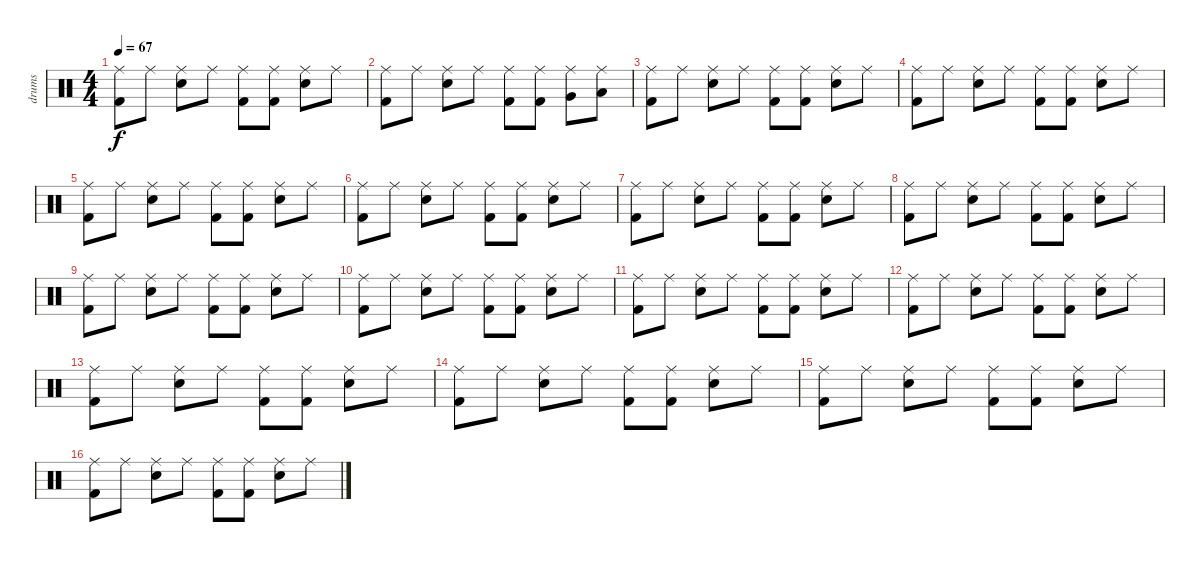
\track ("drums" "drums") {instrument percussion}
\staff {score}
\articulation defaults
\ts (4 4)
\tempo 67
\clef neutral
\ks c
("Ride (middle)" "Kick (hit) 2").8{dy f} "Ride (middle)".8 ("Ride (middle)" "Electric Snare (hit)").8 "Ride (middle)".8 ("Ride (middle)" "Kick (hit) 2").8 ("Ride (middle)" "Kick (hit) 2").8 ("Ride (middle)" "Electric Snare (hit)").8 "Ride (middle)".8 |
("Ride (middle)" "Kick (hit) 2").8 "Ride (middle)".8 ("Ride (middle)" "Electric Snare (hit)").8 "Ride (middle)".8 ("Ride (middle)" "Kick (hit) 2").8 ("Ride (middle)" "Kick (hit) 2").8 ("Ride (middle)" "Very Low Tom (hit)").8 ("Ride (middle)" "Low Floor Tom (hit)").8 |
("Ride (middle)" "Kick (hit) 2").8 "Ride (middle)".8 ("Ride (middle)" "Electric Snare (hit)").8 "Ride (middle)".8 ("Ride (middle)" "Kick (hit) 2").8 ("Ride (middle)" "Kick (hit) 2").8 ("Ride (middle)" "Electric Snare (hit)").8 "Ride (middle)".8 |
("Ride (middle)" "Kick (hit) 2").8 "Ride (middle)".8 ("Ride (middle)" "Electric Snare (hit)").8 "Ride (middle)".8 ("Ride (middle)" "Kick (hit) 2").8 ("Ride (middle)" "Kick (hit) 2").8 ("Ride (middle)" "Electric Snare (hit)").8 "Ride (middle)".8 |
("Ride (middle)" "Kick (hit) 2").8 "Ride (middle)".8 ("Ride (middle)" "Electric Snare (hit)").8 "Ride (middle)".8 ("Ride (middle)" "Kick (hit) 2").8 ("Ride (middle)" "Kick (hit) 2").8 ("Ride (middle)" "Electric Snare (hit)").8 "Ride (middle)".8 |
("Ride (middle)" "Kick (hit) 2").8 "Ride (middle)".8 ("Ride (middle)" "Electric Snare (hit)").8 "Ride (middle)".8 ("Ride (middle)" "Kick (hit) 2").8 ("Ride (middle)" "Kick (hit) 2").8 ("Ride (middle)" "Electric Snare (hit)").8 "Ride (middle)".8 |
("Ride (middle)" "Kick (hit) 2").8 "Ride (middle)".8 ("Ride (middle)" "Electric Snare (hit)").8 "Ride (middle)".8 ("Ride (middle)" "Kick (hit) 2").8 ("Ride (middle)" "Kick (hit) 2").8 ("Ride (middle)" "Electric Snare (hit)").8 "Ride (middle)".8 |
("Ride (middle)" "Kick (hit) 2").8 "Ride (middle)".8 ("Ride (middle)" "Electric Snare (hit)").8 "Ride (middle)".8 ("Ride (middle)" "Kick (hit) 2").8 ("Ride (middle)" "Kick (hit) 2").8 ("Ride (middle)" "Electric Snare (hit)").8 "Ride (middle)".8 |
("Ride (middle)" "Kick (hit) 2").8 "Ride (middle)".8 ("Ride (middle)" "Electric Snare (hit)").8 "Ride (middle)".8 ("Ride (middle)" "Kick (hit) 2").8 ("Ride (middle)" "Kick (hit) 2").8 ("Ride (middle)" "Electric Snare (hit)").8 "Ride (middle)".8 |
("Ride (middle)" "Kick (hit) 2").8 "Ride (middle)".8 ("Ride (middle)" "Electric Snare (hit)").8 "Ride (middle)".8 ("Ride (middle)" "Kick (hit) 2").8 ("Ride (middle)" "Kick (hit) 2").8 ("Ride (middle)" "Electric Snare (hit)").8 "Ride (middle)".8 |
("Ride (middle)" "Kick (hit) 2").8 "Ride (middle)".8 ("Ride (middle)" "Electric Snare (hit)").8 "Ride (middle)".8 ("Ride (middle)" "Kick (hit) 2").8 ("Ride (middle)" "Kick (hit) 2").8 ("Ride (middle)" "Electric Snare (hit)").8 "Ride (middle)".8 |
("Ride (middle)" "Kick (hit) 2").8 "Ride (middle)".8 ("Ride (middle)" "Electric Snare (hit)").8 "Ride (middle)".8 ("Ride (middle)" "Kick (hit) 2").8 ("Ride (middle)" "Kick (hit) 2").8 ("Ride (middle)" "Electric Snare (hit)").8 "Ride (middle)".8 |
("Ride (middle)" "Kick (hit) 2").8 "Ride (middle)".8 ("Ride (middle)" "Electric Snare (hit)").8 "Ride (middle)".8 ("Ride (middle)" "Kick (hit) 2").8 ("Ride (middle)" "Kick (hit) 2").8 ("Ride (middle)" "Electric Snare (hit)").8 "Ride (middle)".8 |
("Ride (middle)" "Kick (hit) 2").8 "Ride (middle)".8 ("Ride (middle)" "Electric Snare (hit)").8 "Ride (middle)".8 ("Ride (middle)" "Kick (hit) 2").8 ("Ride (middle)" "Kick (hit) 2").8 ("Ride (middle)" "Electric Snare (hit)").8 "Ride (middle)".8 |
("Ride (middle)" "Kick (hit) 2").8 "Ride (middle)".8 ("Ride (middle)" "Electric Snare (hit)").8 "Ride (middle)".8 ("Ride (middle)" "Kick (hit) 2").8 ("Ride (middle)" "Kick (hit) 2").8 ("Ride (middle)" "Electric Snare (hit)").8 "Ride (middle)".8 |
("Ride (middle)" "Kick (hit) 2").8 "Ride (middle)".8 ("Ride (middle)" "Electric Snare (hit)").8 "Ride (middle)".8 ("Ride (middle)" "Kick (hit) 2").8 ("Ride (middle)" "Kick (hit) 2").8 ("Ride (middle)" "Electric Snare (hit)").8 "Ride (middle)".8
